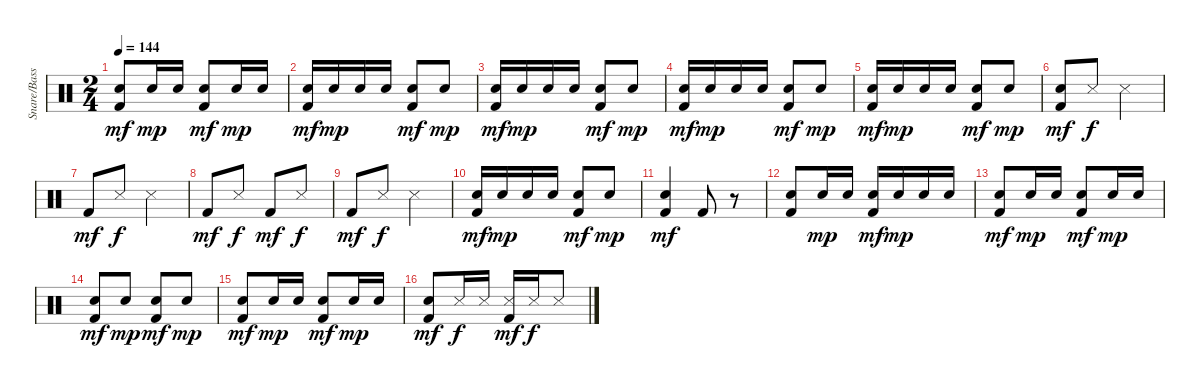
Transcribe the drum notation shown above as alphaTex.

\track ("Snare/Bass Dr       " "Snare/Bass") {instrument percussion}
\staff {score}
\articulation defaults
\ts (2 4)
\tempo 144
\clef neutral
\ks c
("Snare (hit) 2" "Kick (hit) 2").8{dy mf} "Snare (hit) 2".16{dy mp} "Snare (hit) 2".16 ("Snare (hit) 2" "Kick (hit) 2").8{dy mf} "Snare (hit) 2".16{dy mp} "Snare (hit) 2".16 |
("Snare (hit) 2" "Kick (hit) 2").16{dy mf} "Snare (hit) 2".16{dy mp} "Snare (hit) 2".16 "Snare (hit) 2".16 ("Snare (hit) 2" "Kick (hit) 2").8{dy mf} "Snare (hit) 2".8{dy mp} |
("Snare (hit) 2" "Kick (hit) 2").16{dy mf} "Snare (hit) 2".16{dy mp} "Snare (hit) 2".16 "Snare (hit) 2".16 ("Snare (hit) 2" "Kick (hit) 2").8{dy mf} "Snare (hit) 2".8{dy mp} |
("Snare (hit) 2" "Kick (hit) 2").16{dy mf} "Snare (hit) 2".16{dy mp} "Snare (hit) 2".16 "Snare (hit) 2".16 ("Snare (hit) 2" "Kick (hit) 2").8{dy mf} "Snare (hit) 2".8{dy mp} |
("Snare (hit) 2" "Kick (hit) 2").16{dy mf} "Snare (hit) 2".16{dy mp} "Snare (hit) 2".16 "Snare (hit) 2".16 ("Snare (hit) 2" "Kick (hit) 2").8{dy mf} "Snare (hit) 2".8{dy mp} |
("Snare (hit) 2" "Kick (hit) 2").8{dy mf} "Snare (side stick) 3".8{dy f} "Snare (side stick) 3".4 |
"Kick (hit) 2".8{dy mf} "Snare (side stick) 3".8{dy f} "Snare (side stick) 3".4 |
"Kick (hit) 2".8{dy mf} "Snare (side stick) 3".8{dy f} "Kick (hit) 2".8{dy mf} "Snare (side stick) 3".8{dy f} |
"Kick (hit) 2".8{dy mf} "Snare (side stick) 3".8{dy f} "Snare (side stick) 3".4 |
("Snare (hit) 2" "Kick (hit) 2").16{dy mf} "Snare (hit) 2".16{dy mp} "Snare (hit) 2".16 "Snare (hit) 2".16 ("Snare (hit) 2" "Kick (hit) 2").8{dy mf} "Snare (hit) 2".8{dy mp} |
("Snare (hit) 2" "Kick (hit) 2").4{dy mf} "Kick (hit) 2".8 r.8 |
("Snare (hit) 2" "Kick (hit) 2").8 "Snare (hit) 2".16{dy mp} "Snare (hit) 2".16 ("Snare (hit) 2" "Kick (hit) 2").16{dy mf} "Snare (hit) 2".16{dy mp} "Snare (hit) 2".16 "Snare (hit) 2".16 |
("Snare (hit) 2" "Kick (hit) 2").8{dy mf} "Snare (hit) 2".16{dy mp} "Snare (hit) 2".16 ("Snare (hit) 2" "Kick (hit) 2").8{dy mf} "Snare (hit) 2".16{dy mp} "Snare (hit) 2".16 |
("Snare (hit) 2" "Kick (hit) 2").8{dy mf} "Snare (hit) 2".8{dy mp} ("Snare (hit) 2" "Kick (hit) 2").8{dy mf} "Snare (hit) 2".8{dy mp} |
("Snare (hit) 2" "Kick (hit) 2").8{dy mf} "Snare (hit) 2".16{dy mp} "Snare (hit) 2".16 ("Snare (hit) 2" "Kick (hit) 2").8{dy mf} "Snare (hit) 2".16{dy mp} "Snare (hit) 2".16 |
("Snare (hit) 2" "Kick (hit) 2").8{dy mf} "Snare (side stick) 3".16{dy f} "Snare (side stick) 3".16 ("Snare (side stick) 3" "Kick (hit) 2").16{dy mf} "Snare (side stick) 3".16{dy f} "Snare (side stick) 3".8
